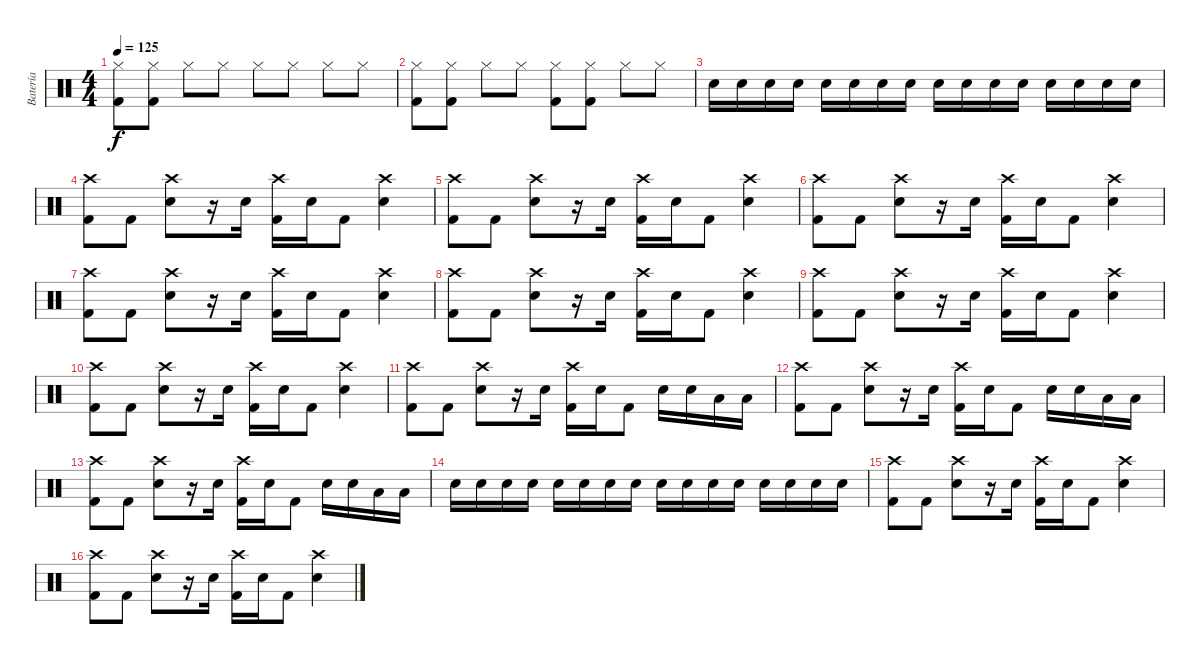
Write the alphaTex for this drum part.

\track ("Batería" "Batería") {instrument percussion}
\staff {score}
\articulation defaults
\ts (4 4)
\tempo 125
\clef neutral
\ks c
("Hi-Hat (closed)" "Kick (hit) 2").8{dy f} ("Hi-Hat (closed)" "Kick (hit) 2").8 "Hi-Hat (closed)".8 "Hi-Hat (closed)".8 "Hi-Hat (closed)".8 "Hi-Hat (closed)".8 "Hi-Hat (closed)".8 "Hi-Hat (closed)".8 |
("Hi-Hat (closed)" "Kick (hit) 2").8 ("Hi-Hat (closed)" "Kick (hit) 2").8 "Hi-Hat (closed)".8 "Hi-Hat (closed)".8 ("Hi-Hat (closed)" "Kick (hit) 2").8 ("Hi-Hat (closed)" "Kick (hit) 2").8 "Hi-Hat (closed)".8 "Hi-Hat (closed)".8 |
"Snare (hit) 2".16 "Snare (hit) 2".16 "Snare (hit) 2".16 "Snare (hit) 2".16 "Snare (hit) 2".16 "Snare (hit) 2".16 "Snare (hit) 2".16 "Snare (hit) 2".16 "Snare (hit) 2".16 "Snare (hit) 2".16 "Snare (hit) 2".16 "Snare (hit) 2".16 "Snare (hit) 2".16 "Snare (hit) 2".16 "Snare (hit) 2".16 "Snare (hit) 2".16 |
("Crash high (hit)" "Kick (hit) 2").8 "Kick (hit) 2".8 ("Crash high (hit)" "Snare (hit) 2").8 r.16 "Snare (hit) 2".16 ("Crash high (hit)" "Kick (hit) 2").16 "Snare (hit) 2".16 "Kick (hit) 2".8 ("Crash high (hit)" "Snare (hit) 2").4 |
("Crash high (hit)" "Kick (hit) 2").8 "Kick (hit) 2".8 ("Crash high (hit)" "Snare (hit) 2").8 r.16 "Snare (hit) 2".16 ("Crash high (hit)" "Kick (hit) 2").16 "Snare (hit) 2".16 "Kick (hit) 2".8 ("Crash high (hit)" "Snare (hit) 2").4 |
("Crash high (hit)" "Kick (hit) 2").8 "Kick (hit) 2".8 ("Crash high (hit)" "Snare (hit) 2").8 r.16 "Snare (hit) 2".16 ("Crash high (hit)" "Kick (hit) 2").16 "Snare (hit) 2".16 "Kick (hit) 2".8 ("Crash high (hit)" "Snare (hit) 2").4 |
("Crash high (hit)" "Kick (hit) 2").8 "Kick (hit) 2".8 ("Crash high (hit)" "Snare (hit) 2").8 r.16 "Snare (hit) 2".16 ("Crash high (hit)" "Kick (hit) 2").16 "Snare (hit) 2".16 "Kick (hit) 2".8 ("Crash high (hit)" "Snare (hit) 2").4 |
("Crash high (hit)" "Kick (hit) 2").8 "Kick (hit) 2".8 ("Crash high (hit)" "Snare (hit) 2").8 r.16 "Snare (hit) 2".16 ("Crash high (hit)" "Kick (hit) 2").16 "Snare (hit) 2".16 "Kick (hit) 2".8 ("Crash high (hit)" "Snare (hit) 2").4 |
("Crash high (hit)" "Kick (hit) 2").8 "Kick (hit) 2".8 ("Crash high (hit)" "Snare (hit) 2").8 r.16 "Snare (hit) 2".16 ("Crash high (hit)" "Kick (hit) 2").16 "Snare (hit) 2".16 "Kick (hit) 2".8 ("Crash high (hit)" "Snare (hit) 2").4 |
("Crash high (hit)" "Kick (hit) 2").8 "Kick (hit) 2".8 ("Crash high (hit)" "Snare (hit) 2").8 r.16 "Snare (hit) 2".16 ("Crash high (hit)" "Kick (hit) 2").16 "Snare (hit) 2".16 "Kick (hit) 2".8 ("Crash high (hit)" "Snare (hit) 2").4 |
("Crash high (hit)" "Kick (hit) 2").8 "Kick (hit) 2".8 ("Crash high (hit)" "Snare (hit) 2").8 r.16 "Snare (hit) 2".16 ("Crash high (hit)" "Kick (hit) 2").16 "Snare (hit) 2".16 "Kick (hit) 2".8 "Snare (hit) 2".16 "Snare (hit) 2".16 "Low Tom (hit)".16 "Low Tom (hit)".16 |
("Crash high (hit)" "Kick (hit) 2").8 "Kick (hit) 2".8 ("Crash high (hit)" "Snare (hit) 2").8 r.16 "Snare (hit) 2".16 ("Crash high (hit)" "Kick (hit) 2").16 "Snare (hit) 2".16 "Kick (hit) 2".8 "Snare (hit) 2".16 "Snare (hit) 2".16 "Low Tom (hit)".16 "Low Tom (hit)".16 |
("Crash high (hit)" "Kick (hit) 2").8 "Kick (hit) 2".8 ("Crash high (hit)" "Snare (hit) 2").8 r.16 "Snare (hit) 2".16 ("Crash high (hit)" "Kick (hit) 2").16 "Snare (hit) 2".16 "Kick (hit) 2".8 "Snare (hit) 2".16 "Snare (hit) 2".16 "Low Tom (hit)".16 "Low Tom (hit)".16 |
"Snare (hit) 2".16 "Snare (hit) 2".16 "Snare (hit) 2".16 "Snare (hit) 2".16 "Snare (hit) 2".16 "Snare (hit) 2".16 "Snare (hit) 2".16 "Snare (hit) 2".16 "Snare (hit) 2".16 "Snare (hit) 2".16 "Snare (hit) 2".16 "Snare (hit) 2".16 "Snare (hit) 2".16 "Snare (hit) 2".16 "Snare (hit) 2".16 "Snare (hit) 2".16 |
("Crash high (hit)" "Kick (hit) 2").8 "Kick (hit) 2".8 ("Crash high (hit)" "Snare (hit) 2").8 r.16 "Snare (hit) 2".16 ("Crash high (hit)" "Kick (hit) 2").16 "Snare (hit) 2".16 "Kick (hit) 2".8 ("Crash high (hit)" "Snare (hit) 2").4 |
("Crash high (hit)" "Kick (hit) 2").8 "Kick (hit) 2".8 ("Crash high (hit)" "Snare (hit) 2").8 r.16 "Snare (hit) 2".16 ("Crash high (hit)" "Kick (hit) 2").16 "Snare (hit) 2".16 "Kick (hit) 2".8 ("Crash high (hit)" "Snare (hit) 2").4
